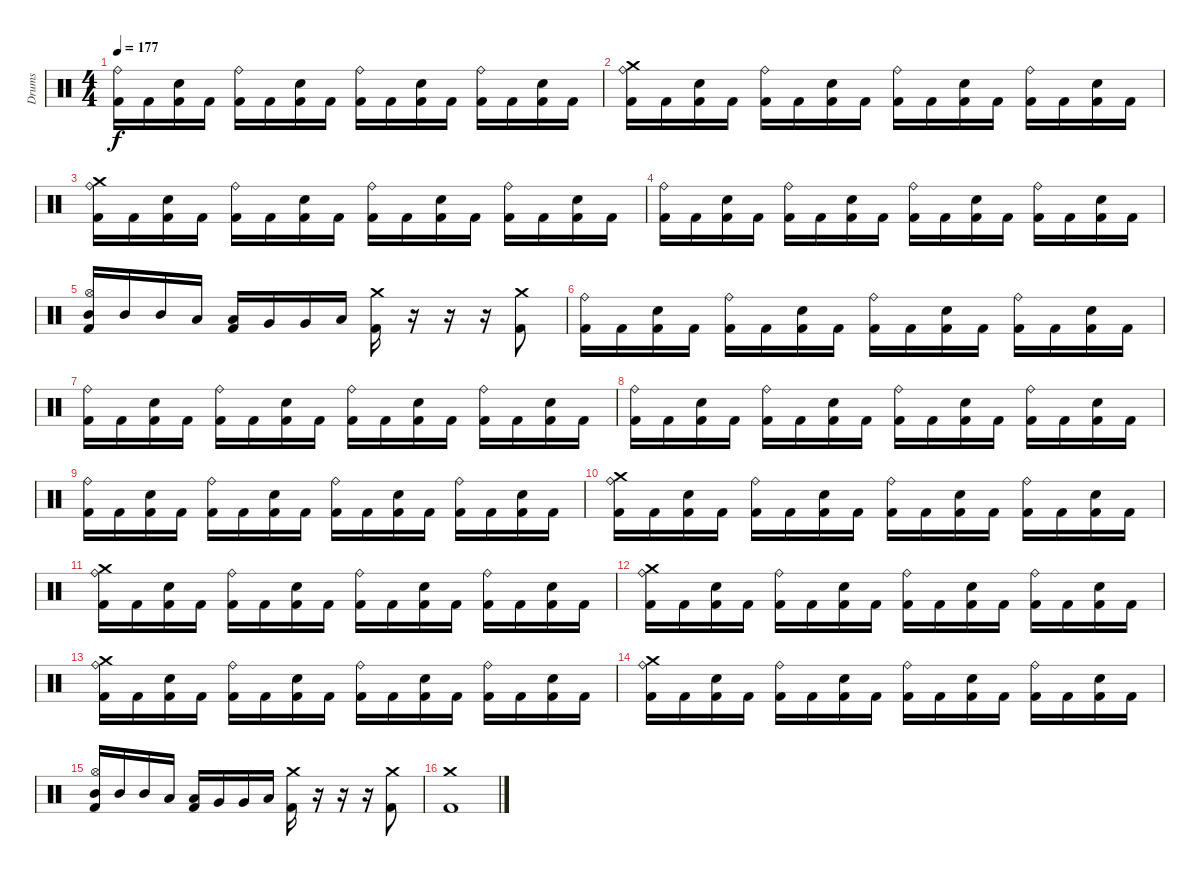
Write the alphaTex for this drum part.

\track ("Drums" "Drums") {instrument percussion}
\staff {score}
\articulation defaults
\ts (4 4)
\tempo 177
\clef neutral
\ks c
("Ride (bell)" "Kick (hit) 2").16{dy f} "Kick (hit) 2".16 ("Snare (hit) 2" "Kick (hit) 2").16 "Kick (hit) 2".16 ("Ride (bell)" "Kick (hit) 2").16 "Kick (hit) 2".16 ("Snare (hit) 2" "Kick (hit) 2").16 "Kick (hit) 2".16 ("Ride (bell)" "Kick (hit) 2").16 "Kick (hit) 2".16 ("Snare (hit) 2" "Kick (hit) 2").16 "Kick (hit) 2".16 ("Ride (bell)" "Kick (hit) 2").16 "Kick (hit) 2".16 ("Snare (hit) 2" "Kick (hit) 2").16 "Kick (hit) 2".16 |
("Ride (bell)" "Crash medium (hit)" "Kick (hit) 2").16 "Kick (hit) 2".16 ("Snare (hit) 2" "Kick (hit) 2").16 "Kick (hit) 2".16 ("Ride (bell)" "Kick (hit) 2").16 "Kick (hit) 2".16 ("Snare (hit) 2" "Kick (hit) 2").16 "Kick (hit) 2".16 ("Ride (bell)" "Kick (hit) 2").16 "Kick (hit) 2".16 ("Snare (hit) 2" "Kick (hit) 2").16 "Kick (hit) 2".16 ("Ride (bell)" "Kick (hit) 2").16 "Kick (hit) 2".16 ("Snare (hit) 2" "Kick (hit) 2").16 "Kick (hit) 2".16 |
("Ride (bell)" "Crash medium (hit)" "Kick (hit) 2").16 "Kick (hit) 2".16 ("Snare (hit) 2" "Kick (hit) 2").16 "Kick (hit) 2".16 ("Ride (bell)" "Kick (hit) 2").16 "Kick (hit) 2".16 ("Snare (hit) 2" "Kick (hit) 2").16 "Kick (hit) 2".16 ("Ride (bell)" "Kick (hit) 2").16 "Kick (hit) 2".16 ("Snare (hit) 2" "Kick (hit) 2").16 "Kick (hit) 2".16 ("Ride (bell)" "Kick (hit) 2").16 "Kick (hit) 2".16 ("Snare (hit) 2" "Kick (hit) 2").16 "Kick (hit) 2".16 |
("Ride (bell)" "Kick (hit) 2").16 "Kick (hit) 2".16 ("Snare (hit) 2" "Kick (hit) 2").16 "Kick (hit) 2".16 ("Ride (bell)" "Kick (hit) 2").16 "Kick (hit) 2".16 ("Snare (hit) 2" "Kick (hit) 2").16 "Kick (hit) 2".16 ("Ride (bell)" "Kick (hit) 2").16 "Kick (hit) 2".16 ("Snare (hit) 2" "Kick (hit) 2").16 "Kick (hit) 2".16 ("Ride (bell)" "Kick (hit) 2").16 "Kick (hit) 2".16 ("Snare (hit) 2" "Kick (hit) 2").16 "Kick (hit) 2".16 |
("Hi-Hat (open)" "Mid Tom (hit)" "Kick (hit) 2").16 "Mid Tom (hit)".16 "Mid Tom (hit)".16 "Low Tom (hit)".16 ("Low Tom (hit)" "Kick (hit) 2").16 "Very Low Tom (hit)".16 "Very Low Tom (hit)".16 "Low Tom (hit)".16 ("Crash medium (hit)" "Kick (hit) 2").16 r.16 r.16 r.16 ("Crash medium (hit)" "Kick (hit) 2").8 |
("Ride (bell)" "Kick (hit) 2").16 "Kick (hit) 2".16 ("Snare (hit) 2" "Kick (hit) 2").16 "Kick (hit) 2".16 ("Ride (bell)" "Kick (hit) 2").16 "Kick (hit) 2".16 ("Snare (hit) 2" "Kick (hit) 2").16 "Kick (hit) 2".16 ("Ride (bell)" "Kick (hit) 2").16 "Kick (hit) 2".16 ("Snare (hit) 2" "Kick (hit) 2").16 "Kick (hit) 2".16 ("Ride (bell)" "Kick (hit) 2").16 "Kick (hit) 2".16 ("Snare (hit) 2" "Kick (hit) 2").16 "Kick (hit) 2".16 |
("Ride (bell)" "Kick (hit) 2").16 "Kick (hit) 2".16 ("Snare (hit) 2" "Kick (hit) 2").16 "Kick (hit) 2".16 ("Ride (bell)" "Kick (hit) 2").16 "Kick (hit) 2".16 ("Snare (hit) 2" "Kick (hit) 2").16 "Kick (hit) 2".16 ("Ride (bell)" "Kick (hit) 2").16 "Kick (hit) 2".16 ("Snare (hit) 2" "Kick (hit) 2").16 "Kick (hit) 2".16 ("Ride (bell)" "Kick (hit) 2").16 "Kick (hit) 2".16 ("Snare (hit) 2" "Kick (hit) 2").16 "Kick (hit) 2".16 |
("Ride (bell)" "Kick (hit) 2").16 "Kick (hit) 2".16 ("Snare (hit) 2" "Kick (hit) 2").16 "Kick (hit) 2".16 ("Ride (bell)" "Kick (hit) 2").16 "Kick (hit) 2".16 ("Snare (hit) 2" "Kick (hit) 2").16 "Kick (hit) 2".16 ("Ride (bell)" "Kick (hit) 2").16 "Kick (hit) 2".16 ("Snare (hit) 2" "Kick (hit) 2").16 "Kick (hit) 2".16 ("Ride (bell)" "Kick (hit) 2").16 "Kick (hit) 2".16 ("Snare (hit) 2" "Kick (hit) 2").16 "Kick (hit) 2".16 |
("Ride (bell)" "Kick (hit) 2").16 "Kick (hit) 2".16 ("Snare (hit) 2" "Kick (hit) 2").16 "Kick (hit) 2".16 ("Ride (bell)" "Kick (hit) 2").16 "Kick (hit) 2".16 ("Snare (hit) 2" "Kick (hit) 2").16 "Kick (hit) 2".16 ("Ride (bell)" "Kick (hit) 2").16 "Kick (hit) 2".16 ("Snare (hit) 2" "Kick (hit) 2").16 "Kick (hit) 2".16 ("Ride (bell)" "Kick (hit) 2").16 "Kick (hit) 2".16 ("Snare (hit) 2" "Kick (hit) 2").16 "Kick (hit) 2".16 |
("Ride (bell)" "Crash medium (hit)" "Kick (hit) 2").16 "Kick (hit) 2".16 ("Snare (hit) 2" "Kick (hit) 2").16 "Kick (hit) 2".16 ("Ride (bell)" "Kick (hit) 2").16 "Kick (hit) 2".16 ("Snare (hit) 2" "Kick (hit) 2").16 "Kick (hit) 2".16 ("Ride (bell)" "Kick (hit) 2").16 "Kick (hit) 2".16 ("Snare (hit) 2" "Kick (hit) 2").16 "Kick (hit) 2".16 ("Ride (bell)" "Kick (hit) 2").16 "Kick (hit) 2".16 ("Snare (hit) 2" "Kick (hit) 2").16 "Kick (hit) 2".16 |
("Ride (bell)" "Crash medium (hit)" "Kick (hit) 2").16 "Kick (hit) 2".16 ("Snare (hit) 2" "Kick (hit) 2").16 "Kick (hit) 2".16 ("Ride (bell)" "Kick (hit) 2").16 "Kick (hit) 2".16 ("Snare (hit) 2" "Kick (hit) 2").16 "Kick (hit) 2".16 ("Ride (bell)" "Kick (hit) 2").16 "Kick (hit) 2".16 ("Snare (hit) 2" "Kick (hit) 2").16 "Kick (hit) 2".16 ("Ride (bell)" "Kick (hit) 2").16 "Kick (hit) 2".16 ("Snare (hit) 2" "Kick (hit) 2").16 "Kick (hit) 2".16 |
("Ride (bell)" "Crash medium (hit)" "Kick (hit) 2").16 "Kick (hit) 2".16 ("Snare (hit) 2" "Kick (hit) 2").16 "Kick (hit) 2".16 ("Ride (bell)" "Kick (hit) 2").16 "Kick (hit) 2".16 ("Snare (hit) 2" "Kick (hit) 2").16 "Kick (hit) 2".16 ("Ride (bell)" "Kick (hit) 2").16 "Kick (hit) 2".16 ("Snare (hit) 2" "Kick (hit) 2").16 "Kick (hit) 2".16 ("Ride (bell)" "Kick (hit) 2").16 "Kick (hit) 2".16 ("Snare (hit) 2" "Kick (hit) 2").16 "Kick (hit) 2".16 |
("Ride (bell)" "Crash medium (hit)" "Kick (hit) 2").16 "Kick (hit) 2".16 ("Snare (hit) 2" "Kick (hit) 2").16 "Kick (hit) 2".16 ("Ride (bell)" "Kick (hit) 2").16 "Kick (hit) 2".16 ("Snare (hit) 2" "Kick (hit) 2").16 "Kick (hit) 2".16 ("Ride (bell)" "Kick (hit) 2").16 "Kick (hit) 2".16 ("Snare (hit) 2" "Kick (hit) 2").16 "Kick (hit) 2".16 ("Ride (bell)" "Kick (hit) 2").16 "Kick (hit) 2".16 ("Snare (hit) 2" "Kick (hit) 2").16 "Kick (hit) 2".16 |
("Ride (bell)" "Crash medium (hit)" "Kick (hit) 2").16 "Kick (hit) 2".16 ("Snare (hit) 2" "Kick (hit) 2").16 "Kick (hit) 2".16 ("Ride (bell)" "Kick (hit) 2").16 "Kick (hit) 2".16 ("Snare (hit) 2" "Kick (hit) 2").16 "Kick (hit) 2".16 ("Ride (bell)" "Kick (hit) 2").16 "Kick (hit) 2".16 ("Snare (hit) 2" "Kick (hit) 2").16 "Kick (hit) 2".16 ("Ride (bell)" "Kick (hit) 2").16 "Kick (hit) 2".16 ("Snare (hit) 2" "Kick (hit) 2").16 "Kick (hit) 2".16 |
("Hi-Hat (open)" "Mid Tom (hit)" "Kick (hit) 2").16 "Mid Tom (hit)".16 "Mid Tom (hit)".16 "Low Tom (hit)".16 ("Low Tom (hit)" "Kick (hit) 2").16 "Very Low Tom (hit)".16 "Very Low Tom (hit)".16 "Low Tom (hit)".16 ("Crash medium (hit)" "Kick (hit) 2").16 r.16 r.16 r.16 ("Crash medium (hit)" "Kick (hit) 2").8 |
("Kick (hit) 2" "Crash medium (hit)").1
